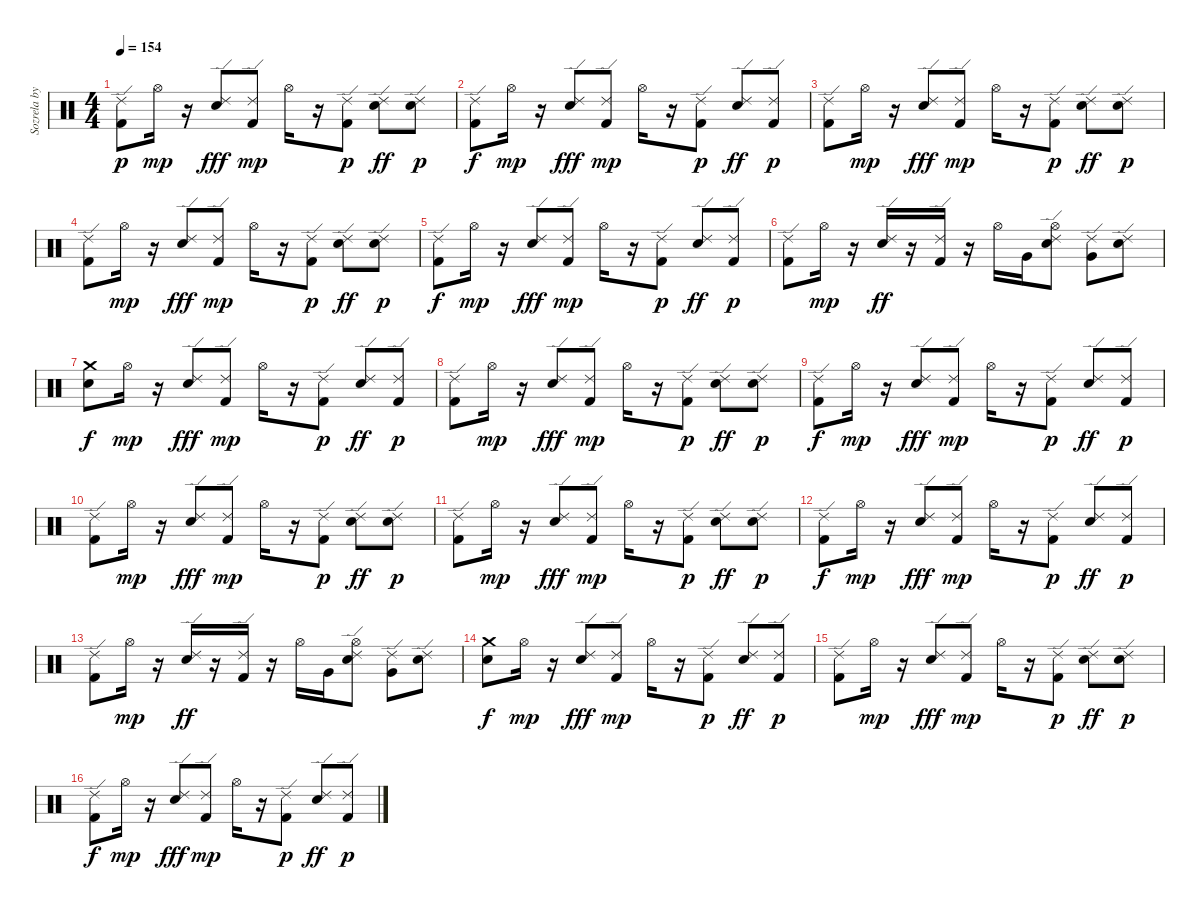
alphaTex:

\track ("Sozrela by Anton" "Sozrela by") {instrument percussion}
\staff {score}
\articulation defaults
\ts (4 4)
\tempo 154
\clef neutral
\ks c
("Kick (hit) 2" "Ride (edge) 2").8{dy p} "Hi-Hat (open)".16{dy mp} r.16 ("Ride (edge) 2" "Snare (hit) 2").8{dy fff} ("Ride (edge) 2" "Kick (hit) 2").8{dy mp} "Hi-Hat (open)".16 r.16 ("Ride (edge) 2" "Kick (hit) 2").8{dy p} ("Ride (edge) 2" "Snare (hit) 2").8{dy ff} ("Ride (edge) 2" "Snare (hit) 2").8{dy p} |
("Kick (hit) 2" "Ride (edge) 2").8{dy f} "Hi-Hat (open)".16{dy mp} r.16 ("Ride (edge) 2" "Snare (hit) 2").8{dy fff} ("Ride (edge) 2" "Kick (hit) 2").8{dy mp} "Hi-Hat (open)".16 r.16 ("Ride (edge) 2" "Kick (hit) 2").8{dy p} ("Ride (edge) 2" "Snare (hit) 2").8{dy ff} ("Ride (edge) 2" "Kick (hit) 2").8{dy p} |
("Kick (hit) 2" "Ride (edge) 2").8 "Hi-Hat (open)".16{dy mp} r.16 ("Ride (edge) 2" "Snare (hit) 2").8{dy fff} ("Ride (edge) 2" "Kick (hit) 2").8{dy mp} "Hi-Hat (open)".16 r.16 ("Ride (edge) 2" "Kick (hit) 2").8{dy p} ("Ride (edge) 2" "Snare (hit) 2").8{dy ff} ("Ride (edge) 2" "Snare (hit) 2").8{dy p} |
("Kick (hit) 2" "Ride (edge) 2").8 "Hi-Hat (open)".16{dy mp} r.16 ("Ride (edge) 2" "Snare (hit) 2").8{dy fff} ("Ride (edge) 2" "Kick (hit) 2").8{dy mp} "Hi-Hat (open)".16 r.16 ("Ride (edge) 2" "Kick (hit) 2").8{dy p} ("Ride (edge) 2" "Snare (hit) 2").8{dy ff} ("Ride (edge) 2" "Snare (hit) 2").8{dy p} |
("Kick (hit) 2" "Ride (edge) 2").8{dy f} "Hi-Hat (open)".16{dy mp} r.16 ("Ride (edge) 2" "Snare (hit) 2").8{dy fff} ("Ride (edge) 2" "Kick (hit) 2").8{dy mp} "Hi-Hat (open)".16 r.16 ("Ride (edge) 2" "Kick (hit) 2").8{dy p} ("Ride (edge) 2" "Snare (hit) 2").8{dy ff} ("Ride (edge) 2" "Kick (hit) 2").8{dy p} |
("Kick (hit) 2" "Ride (edge) 2").8 "Hi-Hat (open)".16{dy mp} r.16 ("Snare (hit) 2" "Ride (edge) 2").16{dy ff} r.16 ("Kick (hit) 2" "Ride (edge) 2").16 r.16 "Hi-Hat (open)".16 "Very Low Tom (hit)".16 ("Hi-Hat (open)" "Ride (edge) 2" "Electric Snare (hit)").8 ("Ride (edge) 2" "Very Low Tom (hit)").8 ("Ride (edge) 2" "Electric Snare (hit)").8 |
("Electric Snare (hit)" "Crash medium (hit)").8{dy f} "Hi-Hat (open)".16{dy mp} r.16 ("Ride (edge) 2" "Snare (hit) 2").8{dy fff} ("Ride (edge) 2" "Kick (hit) 2").8{dy mp} "Hi-Hat (open)".16 r.16 ("Ride (edge) 2" "Kick (hit) 2").8{dy p} ("Ride (edge) 2" "Snare (hit) 2").8{dy ff} ("Ride (edge) 2" "Kick (hit) 2").8{dy p} |
("Kick (hit) 2" "Ride (edge) 2").8 "Hi-Hat (open)".16{dy mp} r.16 ("Ride (edge) 2" "Snare (hit) 2").8{dy fff} ("Ride (edge) 2" "Kick (hit) 2").8{dy mp} "Hi-Hat (open)".16 r.16 ("Ride (edge) 2" "Kick (hit) 2").8{dy p} ("Ride (edge) 2" "Snare (hit) 2").8{dy ff} ("Ride (edge) 2" "Snare (hit) 2").8{dy p} |
("Kick (hit) 2" "Ride (edge) 2").8{dy f} "Hi-Hat (open)".16{dy mp} r.16 ("Ride (edge) 2" "Snare (hit) 2").8{dy fff} ("Ride (edge) 2" "Kick (hit) 2").8{dy mp} "Hi-Hat (open)".16 r.16 ("Ride (edge) 2" "Kick (hit) 2").8{dy p} ("Ride (edge) 2" "Snare (hit) 2").8{dy ff} ("Ride (edge) 2" "Kick (hit) 2").8{dy p} |
("Kick (hit) 2" "Ride (edge) 2").8 "Hi-Hat (open)".16{dy mp} r.16 ("Ride (edge) 2" "Snare (hit) 2").8{dy fff} ("Ride (edge) 2" "Kick (hit) 2").8{dy mp} "Hi-Hat (open)".16 r.16 ("Ride (edge) 2" "Kick (hit) 2").8{dy p} ("Ride (edge) 2" "Snare (hit) 2").8{dy ff} ("Ride (edge) 2" "Snare (hit) 2").8{dy p} |
("Kick (hit) 2" "Ride (edge) 2").8 "Hi-Hat (open)".16{dy mp} r.16 ("Ride (edge) 2" "Snare (hit) 2").8{dy fff} ("Ride (edge) 2" "Kick (hit) 2").8{dy mp} "Hi-Hat (open)".16 r.16 ("Ride (edge) 2" "Kick (hit) 2").8{dy p} ("Ride (edge) 2" "Snare (hit) 2").8{dy ff} ("Ride (edge) 2" "Snare (hit) 2").8{dy p} |
("Kick (hit) 2" "Ride (edge) 2").8{dy f} "Hi-Hat (open)".16{dy mp} r.16 ("Ride (edge) 2" "Snare (hit) 2").8{dy fff} ("Ride (edge) 2" "Kick (hit) 2").8{dy mp} "Hi-Hat (open)".16 r.16 ("Ride (edge) 2" "Kick (hit) 2").8{dy p} ("Ride (edge) 2" "Snare (hit) 2").8{dy ff} ("Ride (edge) 2" "Kick (hit) 2").8{dy p} |
("Kick (hit) 2" "Ride (edge) 2").8 "Hi-Hat (open)".16{dy mp} r.16 ("Snare (hit) 2" "Ride (edge) 2").16{dy ff} r.16 ("Kick (hit) 2" "Ride (edge) 2").16 r.16 "Hi-Hat (open)".16 "Very Low Tom (hit)".16 ("Hi-Hat (open)" "Ride (edge) 2" "Electric Snare (hit)").8 ("Ride (edge) 2" "Very Low Tom (hit)").8 ("Ride (edge) 2" "Electric Snare (hit)").8 |
("Electric Snare (hit)" "Crash medium (hit)").8{dy f} "Hi-Hat (open)".16{dy mp} r.16 ("Ride (edge) 2" "Snare (hit) 2").8{dy fff} ("Ride (edge) 2" "Kick (hit) 2").8{dy mp} "Hi-Hat (open)".16 r.16 ("Ride (edge) 2" "Kick (hit) 2").8{dy p} ("Ride (edge) 2" "Snare (hit) 2").8{dy ff} ("Ride (edge) 2" "Kick (hit) 2").8{dy p} |
("Kick (hit) 2" "Ride (edge) 2").8 "Hi-Hat (open)".16{dy mp} r.16 ("Ride (edge) 2" "Snare (hit) 2").8{dy fff} ("Ride (edge) 2" "Kick (hit) 2").8{dy mp} "Hi-Hat (open)".16 r.16 ("Ride (edge) 2" "Kick (hit) 2").8{dy p} ("Ride (edge) 2" "Snare (hit) 2").8{dy ff} ("Ride (edge) 2" "Snare (hit) 2").8{dy p} |
("Kick (hit) 2" "Ride (edge) 2").8{dy f} "Hi-Hat (open)".16{dy mp} r.16 ("Ride (edge) 2" "Snare (hit) 2").8{dy fff} ("Ride (edge) 2" "Kick (hit) 2").8{dy mp} "Hi-Hat (open)".16 r.16 ("Ride (edge) 2" "Kick (hit) 2").8{dy p} ("Ride (edge) 2" "Snare (hit) 2").8{dy ff} ("Ride (edge) 2" "Kick (hit) 2").8{dy p}
